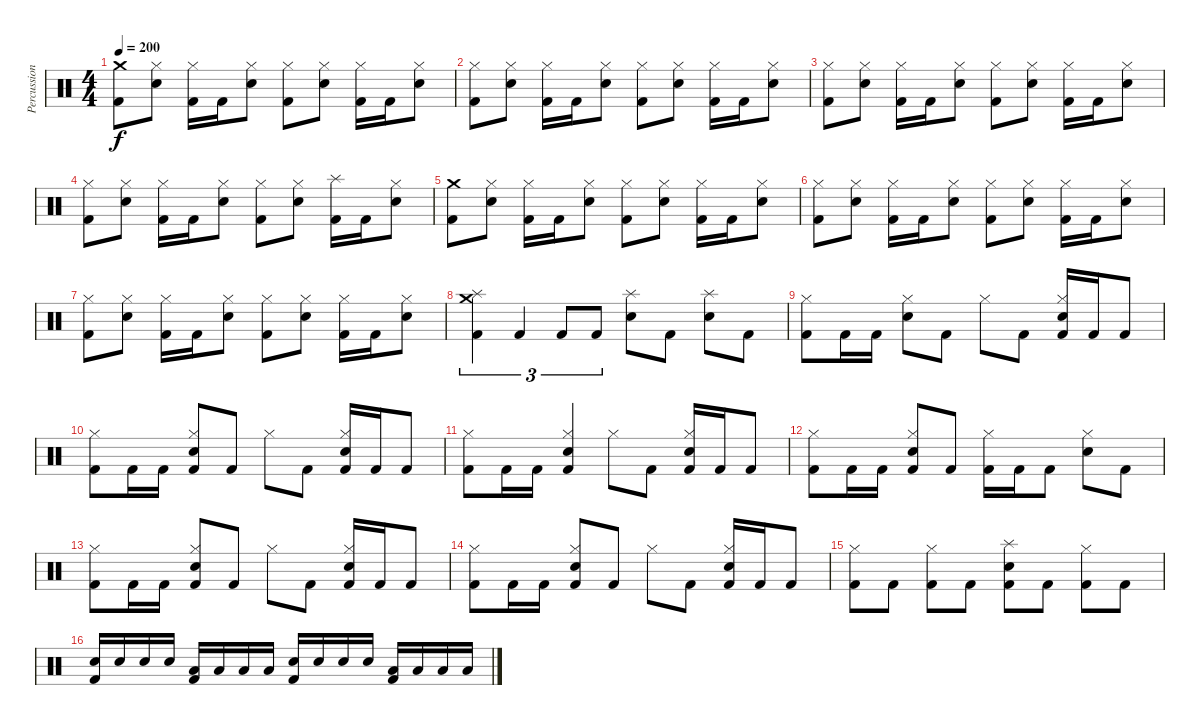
\track ("Percussion" "Percussion") {instrument percussion}
\staff {score}
\articulation defaults
\ts (4 4)
\tempo 200
\clef neutral
\ks c
("Crash medium (hit)" "Kick (hit) 2").8{dy f} ("Hi-Hat (closed)" "Electric Snare (hit)").8 ("Hi-Hat (closed)" "Kick (hit) 2").16 "Kick (hit) 2".16 ("Hi-Hat (closed)" "Electric Snare (hit)").8 ("Hi-Hat (closed)" "Kick (hit) 2").8 ("Hi-Hat (closed)" "Electric Snare (hit)").8 ("Hi-Hat (closed)" "Kick (hit) 2").16 "Kick (hit) 2".16 ("Hi-Hat (closed)" "Electric Snare (hit)").8 |
("Hi-Hat (closed)" "Kick (hit) 2").8 ("Hi-Hat (closed)" "Electric Snare (hit)").8 ("Hi-Hat (closed)" "Kick (hit) 2").16 "Kick (hit) 2".16 ("Hi-Hat (closed)" "Electric Snare (hit)").8 ("Hi-Hat (closed)" "Kick (hit) 2").8 ("Hi-Hat (closed)" "Electric Snare (hit)").8 ("Hi-Hat (closed)" "Kick (hit) 2").16 "Kick (hit) 2".16 ("Hi-Hat (closed)" "Electric Snare (hit)").8 |
("Hi-Hat (closed)" "Kick (hit) 2").8 ("Hi-Hat (closed)" "Electric Snare (hit)").8 ("Hi-Hat (closed)" "Kick (hit) 2").16 "Kick (hit) 2".16 ("Hi-Hat (closed)" "Electric Snare (hit)").8 ("Hi-Hat (closed)" "Kick (hit) 2").8 ("Hi-Hat (closed)" "Electric Snare (hit)").8 ("Hi-Hat (closed)" "Kick (hit) 2").16 "Kick (hit) 2".16 ("Hi-Hat (closed)" "Electric Snare (hit)").8 |
("Hi-Hat (closed)" "Kick (hit) 2").8 ("Hi-Hat (closed)" "Electric Snare (hit)").8 ("Hi-Hat (closed)" "Kick (hit) 2").16 "Kick (hit) 2".16 ("Hi-Hat (closed)" "Electric Snare (hit)").8 ("Hi-Hat (closed)" "Kick (hit) 2").8 ("Hi-Hat (closed)" "Electric Snare (hit)").8 ("Splash (hit)" "Kick (hit) 2").16 "Kick (hit) 2".16 ("Hi-Hat (closed)" "Electric Snare (hit)").8 |
("Crash medium (hit)" "Kick (hit) 2").8 ("Hi-Hat (closed)" "Electric Snare (hit)").8 ("Hi-Hat (closed)" "Kick (hit) 2").16 "Kick (hit) 2".16 ("Hi-Hat (closed)" "Electric Snare (hit)").8 ("Hi-Hat (closed)" "Kick (hit) 2").8 ("Hi-Hat (closed)" "Electric Snare (hit)").8 ("Hi-Hat (closed)" "Kick (hit) 2").16 "Kick (hit) 2".16 ("Hi-Hat (closed)" "Electric Snare (hit)").8 |
("Hi-Hat (closed)" "Kick (hit) 2").8 ("Hi-Hat (closed)" "Electric Snare (hit)").8 ("Hi-Hat (closed)" "Kick (hit) 2").16 "Kick (hit) 2".16 ("Hi-Hat (closed)" "Electric Snare (hit)").8 ("Hi-Hat (closed)" "Kick (hit) 2").8 ("Hi-Hat (closed)" "Electric Snare (hit)").8 ("Hi-Hat (closed)" "Kick (hit) 2").16 "Kick (hit) 2".16 ("Hi-Hat (closed)" "Electric Snare (hit)").8 |
("Hi-Hat (closed)" "Kick (hit) 2").8 ("Hi-Hat (closed)" "Electric Snare (hit)").8 ("Hi-Hat (closed)" "Kick (hit) 2").16 "Kick (hit) 2".16 ("Hi-Hat (closed)" "Electric Snare (hit)").8 ("Hi-Hat (closed)" "Kick (hit) 2").8 ("Hi-Hat (closed)" "Electric Snare (hit)").8 ("Hi-Hat (closed)" "Kick (hit) 2").16 "Kick (hit) 2".16 ("Hi-Hat (closed)" "Electric Snare (hit)").8 |
("Splash (hit)" "Crash medium (hit)" "Kick (hit) 2").4{tu (3 2)} "Kick (hit) 2".4{tu (3 2)} "Kick (hit) 2".8{tu (3 2)} "Kick (hit) 2".8{tu (3 2)} ("Splash (hit)" "Electric Snare (hit)").8 "Kick (hit) 2".8 ("Splash (hit)" "Electric Snare (hit)").8 "Kick (hit) 2".8 |
("Hi-Hat (closed)" "Kick (hit) 2").8 "Kick (hit) 2".16 "Kick (hit) 2".16 ("Hi-Hat (closed)" "Electric Snare (hit)").8 "Kick (hit) 2".8 "Hi-Hat (closed)".8 "Kick (hit) 2".8 ("Hi-Hat (closed)" "Electric Snare (hit)" "Kick (hit) 2").16 "Kick (hit) 2".16 "Kick (hit) 2".8 |
("Hi-Hat (closed)" "Kick (hit) 2").8 "Kick (hit) 2".16 "Kick (hit) 2".16 ("Hi-Hat (closed)" "Electric Snare (hit)" "Kick (hit) 2").8 "Kick (hit) 2".8 "Hi-Hat (closed)".8 "Kick (hit) 2".8 ("Hi-Hat (closed)" "Electric Snare (hit)" "Kick (hit) 2").16 "Kick (hit) 2".16 "Kick (hit) 2".8 |
("Hi-Hat (closed)" "Kick (hit) 2").8 "Kick (hit) 2".16 "Kick (hit) 2".16 ("Hi-Hat (closed)" "Electric Snare (hit)" "Kick (hit) 2").4 "Hi-Hat (closed)".8 "Kick (hit) 2".8 ("Hi-Hat (closed)" "Electric Snare (hit)" "Kick (hit) 2").16 "Kick (hit) 2".16 "Kick (hit) 2".8 |
("Hi-Hat (closed)" "Kick (hit) 2").8 "Kick (hit) 2".16 "Kick (hit) 2".16 ("Hi-Hat (closed)" "Electric Snare (hit)" "Kick (hit) 2").8 "Kick (hit) 2".8 ("Hi-Hat (closed)" "Kick (hit) 2").16 "Kick (hit) 2".16 "Kick (hit) 2".8 ("Hi-Hat (closed)" "Electric Snare (hit)").8 "Kick (hit) 2".8 |
("Hi-Hat (closed)" "Kick (hit) 2").8 "Kick (hit) 2".16 "Kick (hit) 2".16 ("Hi-Hat (closed)" "Electric Snare (hit)" "Kick (hit) 2").8 "Kick (hit) 2".8 "Hi-Hat (closed)".8 "Kick (hit) 2".8 ("Hi-Hat (closed)" "Electric Snare (hit)" "Kick (hit) 2").16 "Kick (hit) 2".16 "Kick (hit) 2".8 |
("Hi-Hat (closed)" "Kick (hit) 2").8 "Kick (hit) 2".16 "Kick (hit) 2".16 ("Hi-Hat (closed)" "Electric Snare (hit)" "Kick (hit) 2").8 "Kick (hit) 2".8 "Hi-Hat (closed)".8 "Kick (hit) 2".8 ("Hi-Hat (closed)" "Electric Snare (hit)" "Kick (hit) 2").16 "Kick (hit) 2".16 "Kick (hit) 2".8 |
("Hi-Hat (closed)" "Kick (hit) 2").8 "Kick (hit) 2".8 ("Hi-Hat (closed)" "Kick (hit) 2").8 "Kick (hit) 2".8 ("Splash (hit)" "Electric Snare (hit)" "Kick (hit) 2").8 "Kick (hit) 2".8 ("Hi-Hat (closed)" "Kick (hit) 2").8 "Kick (hit) 2".8 |
("Electric Snare (hit)" "Kick (hit) 2").16 "Electric Snare (hit)".16 "Electric Snare (hit)".16 "Electric Snare (hit)".16 ("Low Tom (hit)" "Kick (hit) 2").16 "Low Tom (hit)".16 "Low Tom (hit)".16 "Low Tom (hit)".16 ("Electric Snare (hit)" "Kick (hit) 2").16 "Electric Snare (hit)".16 "Electric Snare (hit)".16 "Electric Snare (hit)".16 ("Low Tom (hit)" "Kick (hit) 2").16 "Low Tom (hit)".16 "Low Floor Tom (hit)".16 "Low Floor Tom (hit)".16
